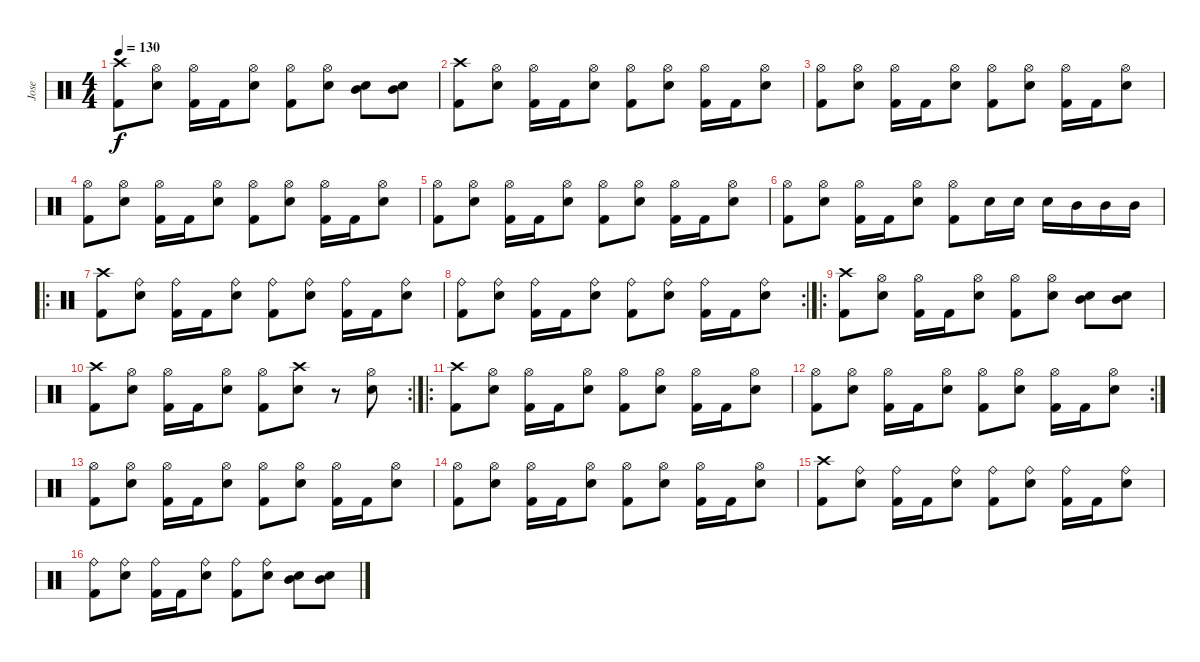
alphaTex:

\track ("Jose" "Jose") {instrument percussion}
\staff {score}
\articulation defaults
\ts (4 4)
\tempo 130
\clef neutral
\ks c
("Crash high (hit)" "Kick (hit) 2").8{dy f} ("Hi-Hat (open)" "Electric Snare (hit)").8 ("Hi-Hat (open)" "Kick (hit) 2").16 "Kick (hit) 2".16 ("Hi-Hat (open)" "Electric Snare (hit)").8 ("Hi-Hat (open)" "Kick (hit) 2").8 ("Hi-Hat (open)" "Electric Snare (hit)").8 ("Mid Tom (hit)" "Electric Snare (hit)").8 ("Mid Tom (hit)" "Electric Snare (hit)").8 |
("Crash high (hit)" "Kick (hit) 2").8 ("Hi-Hat (open)" "Electric Snare (hit)").8 ("Hi-Hat (open)" "Kick (hit) 2").16 "Kick (hit) 2".16 ("Hi-Hat (open)" "Electric Snare (hit)").8 ("Hi-Hat (open)" "Kick (hit) 2").8 ("Hi-Hat (open)" "Electric Snare (hit)").8 ("Hi-Hat (open)" "Kick (hit) 2").16 "Kick (hit) 2".16 ("Hi-Hat (open)" "Electric Snare (hit)").8 |
("Hi-Hat (open)" "Kick (hit) 2").8 ("Hi-Hat (open)" "Electric Snare (hit)").8 ("Hi-Hat (open)" "Kick (hit) 2").16 "Kick (hit) 2".16 ("Hi-Hat (open)" "Electric Snare (hit)").8 ("Hi-Hat (open)" "Kick (hit) 2").8 ("Hi-Hat (open)" "Electric Snare (hit)").8 ("Hi-Hat (open)" "Kick (hit) 2").16 "Kick (hit) 2".16 ("Hi-Hat (open)" "Electric Snare (hit)").8 |
("Hi-Hat (open)" "Kick (hit) 2").8 ("Hi-Hat (open)" "Electric Snare (hit)").8 ("Hi-Hat (open)" "Kick (hit) 2").16 "Kick (hit) 2".16 ("Hi-Hat (open)" "Electric Snare (hit)").8 ("Hi-Hat (open)" "Kick (hit) 2").8 ("Hi-Hat (open)" "Electric Snare (hit)").8 ("Hi-Hat (open)" "Kick (hit) 2").16 "Kick (hit) 2".16 ("Hi-Hat (open)" "Electric Snare (hit)").8 |
("Hi-Hat (open)" "Kick (hit) 2").8 ("Hi-Hat (open)" "Electric Snare (hit)").8 ("Hi-Hat (open)" "Kick (hit) 2").16 "Kick (hit) 2".16 ("Hi-Hat (open)" "Electric Snare (hit)").8 ("Hi-Hat (open)" "Kick (hit) 2").8 ("Hi-Hat (open)" "Electric Snare (hit)").8 ("Hi-Hat (open)" "Kick (hit) 2").16 "Kick (hit) 2".16 ("Hi-Hat (open)" "Electric Snare (hit)").8 |
("Hi-Hat (open)" "Kick (hit) 2").8 ("Hi-Hat (open)" "Electric Snare (hit)").8 ("Hi-Hat (open)" "Kick (hit) 2").16 "Kick (hit) 2".16 ("Hi-Hat (open)" "Electric Snare (hit)").8 ("Hi-Hat (open)" "Kick (hit) 2").8 "Electric Snare (hit)".16 "Electric Snare (hit)".16 "Electric Snare (hit)".16 "Mid Tom (hit)".16 "Mid Tom (hit)".16 "Mid Tom (hit)".16 |
\ro
("Crash high (hit)" "Kick (hit) 2").8 ("Ride (bell)" "Electric Snare (hit)").8 ("Ride (bell)" "Kick (hit) 2").16 "Kick (hit) 2".16 ("Ride (bell)" "Electric Snare (hit)").8 ("Ride (bell)" "Kick (hit) 2").8 ("Ride (bell)" "Electric Snare (hit)").8 ("Ride (bell)" "Kick (hit) 2").16 "Kick (hit) 2".16 ("Ride (bell)" "Electric Snare (hit)").8 |
\rc 2
("Ride (bell)" "Kick (hit) 2").8 ("Ride (bell)" "Electric Snare (hit)").8 ("Ride (bell)" "Kick (hit) 2").16 "Kick (hit) 2".16 ("Ride (bell)" "Electric Snare (hit)").8 ("Ride (bell)" "Kick (hit) 2").8 ("Ride (bell)" "Electric Snare (hit)").8 ("Ride (bell)" "Kick (hit) 2").16 "Kick (hit) 2".16 ("Ride (bell)" "Electric Snare (hit)").8 |
\ro
("Crash high (hit)" "Kick (hit) 2").8 ("Hi-Hat (open)" "Electric Snare (hit)").8 ("Hi-Hat (open)" "Kick (hit) 2").16 "Kick (hit) 2".16 ("Hi-Hat (open)" "Electric Snare (hit)").8 ("Hi-Hat (open)" "Kick (hit) 2").8 ("Hi-Hat (open)" "Electric Snare (hit)").8 ("Mid Tom (hit)" "Electric Snare (hit)").8 ("Mid Tom (hit)" "Electric Snare (hit)").8 |
\rc 2
("Crash high (hit)" "Kick (hit) 2").8 ("Hi-Hat (open)" "Electric Snare (hit)").8 ("Hi-Hat (open)" "Kick (hit) 2").16 "Kick (hit) 2".16 ("Hi-Hat (open)" "Electric Snare (hit)").8 ("Hi-Hat (open)" "Kick (hit) 2").8 ("Crash high (hit)" "Electric Snare (hit)").8 r.8 ("Hi-Hat (open)" "Electric Snare (hit)").8 |
\ro
("Crash high (hit)" "Kick (hit) 2").8 ("Hi-Hat (open)" "Electric Snare (hit)").8 ("Hi-Hat (open)" "Kick (hit) 2").16 "Kick (hit) 2".16 ("Hi-Hat (open)" "Electric Snare (hit)").8 ("Hi-Hat (open)" "Kick (hit) 2").8 ("Hi-Hat (open)" "Electric Snare (hit)").8 ("Hi-Hat (open)" "Kick (hit) 2").16 "Kick (hit) 2".16 ("Hi-Hat (open)" "Electric Snare (hit)").8 |
\rc 2
("Hi-Hat (open)" "Kick (hit) 2").8 ("Hi-Hat (open)" "Electric Snare (hit)").8 ("Hi-Hat (open)" "Kick (hit) 2").16 "Kick (hit) 2".16 ("Hi-Hat (open)" "Electric Snare (hit)").8 ("Hi-Hat (open)" "Kick (hit) 2").8 ("Hi-Hat (open)" "Electric Snare (hit)").8 ("Hi-Hat (open)" "Kick (hit) 2").16 "Kick (hit) 2".16 ("Hi-Hat (open)" "Electric Snare (hit)").8 |
("Hi-Hat (open)" "Kick (hit) 2").8 ("Hi-Hat (open)" "Electric Snare (hit)").8 ("Hi-Hat (open)" "Kick (hit) 2").16 "Kick (hit) 2".16 ("Hi-Hat (open)" "Electric Snare (hit)").8 ("Hi-Hat (open)" "Kick (hit) 2").8 ("Hi-Hat (open)" "Electric Snare (hit)").8 ("Hi-Hat (open)" "Kick (hit) 2").16 "Kick (hit) 2".16 ("Hi-Hat (open)" "Electric Snare (hit)").8 |
("Hi-Hat (open)" "Kick (hit) 2").8 ("Hi-Hat (open)" "Electric Snare (hit)").8 ("Hi-Hat (open)" "Kick (hit) 2").16 "Kick (hit) 2".16 ("Hi-Hat (open)" "Electric Snare (hit)").8 ("Hi-Hat (open)" "Kick (hit) 2").8 ("Hi-Hat (open)" "Electric Snare (hit)").8 ("Hi-Hat (open)" "Kick (hit) 2").16 "Kick (hit) 2".16 ("Hi-Hat (open)" "Electric Snare (hit)").8 |
("Crash high (hit)" "Kick (hit) 2").8 ("Ride (bell)" "Electric Snare (hit)").8 ("Ride (bell)" "Kick (hit) 2").16 "Kick (hit) 2".16 ("Ride (bell)" "Electric Snare (hit)").8 ("Ride (bell)" "Kick (hit) 2").8 ("Ride (bell)" "Electric Snare (hit)").8 ("Ride (bell)" "Kick (hit) 2").16 "Kick (hit) 2".16 ("Ride (bell)" "Electric Snare (hit)").8 |
("Ride (bell)" "Kick (hit) 2").8 ("Ride (bell)" "Electric Snare (hit)").8 ("Ride (bell)" "Kick (hit) 2").16 "Kick (hit) 2".16 ("Ride (bell)" "Electric Snare (hit)").8 ("Ride (bell)" "Kick (hit) 2").8 ("Ride (bell)" "Electric Snare (hit)").8 ("Mid Tom (hit)" "Electric Snare (hit)").8 ("Mid Tom (hit)" "Electric Snare (hit)").8
